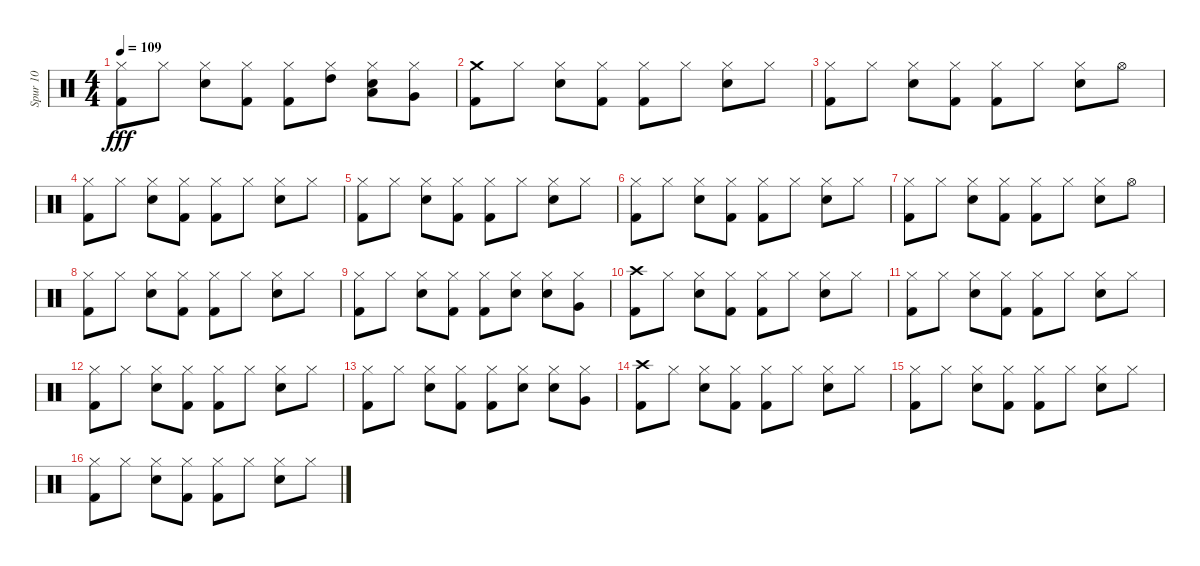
\track ("Spur 10" "Spur 10") {instrument percussion}
\staff {score}
\articulation defaults
\ts (4 4)
\tempo 109
\clef neutral
\ks c
("Kick (hit) 2" "Hi-Hat (closed)").8{dy fff} "Hi-Hat (closed)".8 ("Snare (hit) 2" "Hi-Hat (closed)").8 ("Kick (hit) 2" "Hi-Hat (closed)").8 ("Kick (hit) 2" "Hi-Hat (closed)").8 ("High Tom (hit)" "Hi-Hat (closed)").8 ("Snare (hit) 2" "Low Tom (hit)" "Hi-Hat (closed)").8 ("Very Low Tom (hit)" "Hi-Hat (closed)").8 |
("Kick (hit) 2" "Crash medium (hit)").8 "Hi-Hat (closed)".8 ("Snare (hit) 2" "Hi-Hat (closed)").8 ("Kick (hit) 2" "Hi-Hat (closed)").8 ("Kick (hit) 2" "Hi-Hat (closed)").8 "Hi-Hat (closed)".8 ("Snare (hit) 2" "Hi-Hat (closed)").8 "Hi-Hat (closed)".8 |
("Kick (hit) 2" "Hi-Hat (closed)").8 "Hi-Hat (closed)".8 ("Snare (hit) 2" "Hi-Hat (closed)").8 ("Kick (hit) 2" "Hi-Hat (closed)").8 ("Kick (hit) 2" "Hi-Hat (closed)").8 "Hi-Hat (closed)".8 ("Snare (hit) 2" "Hi-Hat (closed)").8 "Hi-Hat (open)".8 |
("Kick (hit) 2" "Hi-Hat (closed)").8 "Hi-Hat (closed)".8 ("Snare (hit) 2" "Hi-Hat (closed)").8 ("Kick (hit) 2" "Hi-Hat (closed)").8 ("Kick (hit) 2" "Hi-Hat (closed)").8 "Hi-Hat (closed)".8 ("Snare (hit) 2" "Hi-Hat (closed)").8 "Hi-Hat (closed)".8 |
("Kick (hit) 2" "Hi-Hat (closed)").8 "Hi-Hat (closed)".8 ("Snare (hit) 2" "Hi-Hat (closed)").8 ("Kick (hit) 2" "Hi-Hat (closed)").8 ("Kick (hit) 2" "Hi-Hat (closed)").8 "Hi-Hat (closed)".8 ("Snare (hit) 2" "Hi-Hat (closed)").8 "Hi-Hat (closed)".8 |
("Kick (hit) 2" "Hi-Hat (closed)").8 "Hi-Hat (closed)".8 ("Snare (hit) 2" "Hi-Hat (closed)").8 ("Kick (hit) 2" "Hi-Hat (closed)").8 ("Kick (hit) 2" "Hi-Hat (closed)").8 "Hi-Hat (closed)".8 ("Snare (hit) 2" "Hi-Hat (closed)").8 "Hi-Hat (closed)".8 |
("Kick (hit) 2" "Hi-Hat (closed)").8 "Hi-Hat (closed)".8 ("Snare (hit) 2" "Hi-Hat (closed)").8 ("Kick (hit) 2" "Hi-Hat (closed)").8 ("Kick (hit) 2" "Hi-Hat (closed)").8 "Hi-Hat (closed)".8 ("Snare (hit) 2" "Hi-Hat (closed)").8 "Hi-Hat (open)".8 |
("Kick (hit) 2" "Hi-Hat (closed)").8 "Hi-Hat (closed)".8 ("Snare (hit) 2" "Hi-Hat (closed)").8 ("Kick (hit) 2" "Hi-Hat (closed)").8 ("Kick (hit) 2" "Hi-Hat (closed)").8 "Hi-Hat (closed)".8 ("Snare (hit) 2" "Hi-Hat (closed)").8 "Hi-Hat (closed)".8 |
("Kick (hit) 2" "Hi-Hat (closed)").8 "Hi-Hat (closed)".8 ("Snare (hit) 2" "Hi-Hat (closed)").8 ("Kick (hit) 2" "Hi-Hat (closed)").8 ("Kick (hit) 2" "Hi-Hat (closed)").8 ("Snare (hit) 2" "Hi-Hat (closed)").8 ("Snare (hit) 2" "Hi-Hat (closed)").8 ("Very Low Tom (hit)" "Hi-Hat (closed)").8 |
("Kick (hit) 2" "Crash high (hit)").8 "Hi-Hat (closed)".8 ("Snare (hit) 2" "Hi-Hat (closed)").8 ("Kick (hit) 2" "Hi-Hat (closed)").8 ("Kick (hit) 2" "Hi-Hat (closed)").8 "Hi-Hat (closed)".8 ("Snare (hit) 2" "Hi-Hat (closed)").8 "Hi-Hat (closed)".8 |
("Kick (hit) 2" "Hi-Hat (closed)").8 "Hi-Hat (closed)".8 ("Snare (hit) 2" "Hi-Hat (closed)").8 ("Kick (hit) 2" "Hi-Hat (closed)").8 ("Kick (hit) 2" "Hi-Hat (closed)").8 "Hi-Hat (closed)".8 ("Snare (hit) 2" "Hi-Hat (closed)").8 "Hi-Hat (closed)".8 |
("Kick (hit) 2" "Hi-Hat (closed)").8 "Hi-Hat (closed)".8 ("Snare (hit) 2" "Hi-Hat (closed)").8 ("Kick (hit) 2" "Hi-Hat (closed)").8 ("Kick (hit) 2" "Hi-Hat (closed)").8 "Hi-Hat (closed)".8 ("Snare (hit) 2" "Hi-Hat (closed)").8 "Hi-Hat (closed)".8 |
("Kick (hit) 2" "Hi-Hat (closed)").8 "Hi-Hat (closed)".8 ("Snare (hit) 2" "Hi-Hat (closed)").8 ("Kick (hit) 2" "Hi-Hat (closed)").8 ("Kick (hit) 2" "Hi-Hat (closed)").8 ("Snare (hit) 2" "Hi-Hat (closed)").8 ("Snare (hit) 2" "Hi-Hat (closed)").8 ("Very Low Tom (hit)" "Hi-Hat (closed)").8 |
("Kick (hit) 2" "Crash high (hit)").8 "Hi-Hat (closed)".8 ("Snare (hit) 2" "Hi-Hat (closed)").8 ("Kick (hit) 2" "Hi-Hat (closed)").8 ("Kick (hit) 2" "Hi-Hat (closed)").8 "Hi-Hat (closed)".8 ("Snare (hit) 2" "Hi-Hat (closed)").8 "Hi-Hat (closed)".8 |
("Kick (hit) 2" "Hi-Hat (closed)").8 "Hi-Hat (closed)".8 ("Snare (hit) 2" "Hi-Hat (closed)").8 ("Kick (hit) 2" "Hi-Hat (closed)").8 ("Kick (hit) 2" "Hi-Hat (closed)").8 "Hi-Hat (closed)".8 ("Snare (hit) 2" "Hi-Hat (closed)").8 "Hi-Hat (closed)".8 |
("Kick (hit) 2" "Hi-Hat (closed)").8 "Hi-Hat (closed)".8 ("Snare (hit) 2" "Hi-Hat (closed)").8 ("Kick (hit) 2" "Hi-Hat (closed)").8 ("Kick (hit) 2" "Hi-Hat (closed)").8 "Hi-Hat (closed)".8 ("Snare (hit) 2" "Hi-Hat (closed)").8 "Hi-Hat (closed)".8
